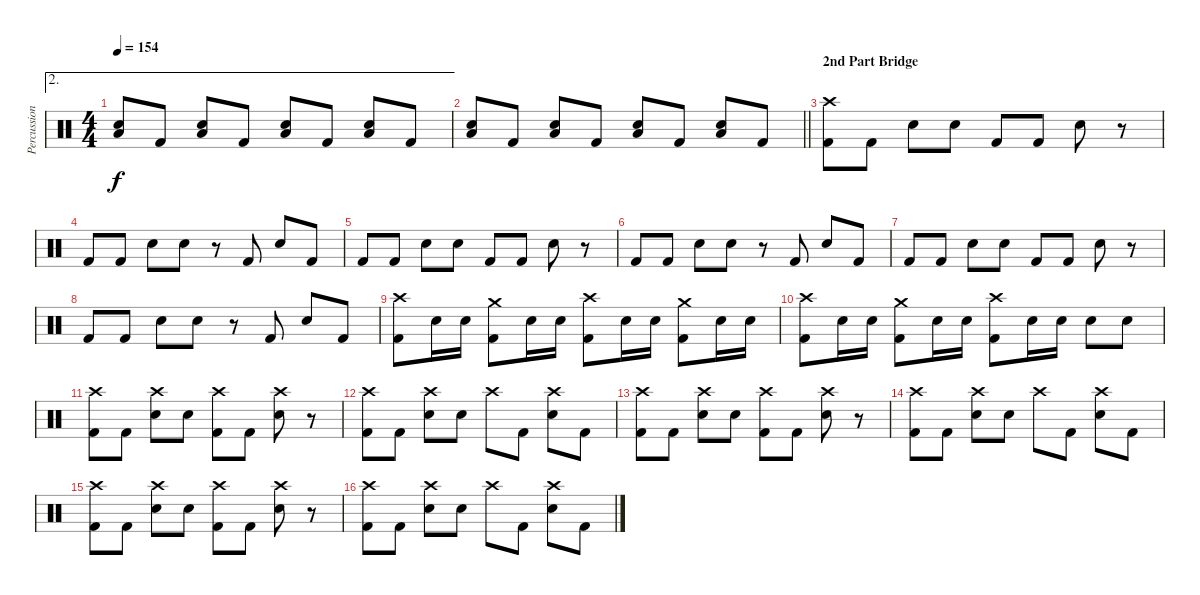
\track ("Percussion" "Percussion") {instrument percussion}
\staff {score}
\articulation defaults
\ae 2
\ts (4 4)
\tempo 154
\clef neutral
\ks c
("Snare (hit) 2" "Low Floor Tom (hit)").8{dy f} "Kick (hit) 2".8 ("Snare (hit) 2" "Low Floor Tom (hit)").8 "Kick (hit) 2".8 ("Snare (hit) 2" "Low Floor Tom (hit)").8 "Kick (hit) 2".8 ("Snare (hit) 2" "Low Floor Tom (hit)").8 "Kick (hit) 2".8 |
\barLineRight lightlight
("Snare (hit) 2" "Low Floor Tom (hit)").8 "Kick (hit) 2".8 ("Snare (hit) 2" "Low Floor Tom (hit)").8 "Kick (hit) 2".8 ("Snare (hit) 2" "Low Floor Tom (hit)").8 "Kick (hit) 2".8 ("Snare (hit) 2" "Low Floor Tom (hit)").8 "Kick (hit) 2".8 |
\section ("" "2nd Part Bridge")
("Crash high (hit)" "Kick (hit) 2").8 "Kick (hit) 2".8 "Snare (hit) 2".8 "Snare (hit) 2".8 "Kick (hit) 2".8 "Kick (hit) 2".8 "Snare (hit) 2".8 r.8 |
"Kick (hit) 2".8 "Kick (hit) 2".8 "Snare (hit) 2".8 "Snare (hit) 2".8 r.8 "Kick (hit) 2".8 "Snare (hit) 2".8 "Kick (hit) 2".8 |
"Kick (hit) 2".8 "Kick (hit) 2".8 "Snare (hit) 2".8 "Snare (hit) 2".8 "Kick (hit) 2".8 "Kick (hit) 2".8 "Snare (hit) 2".8 r.8 |
"Kick (hit) 2".8 "Kick (hit) 2".8 "Snare (hit) 2".8 "Snare (hit) 2".8 r.8 "Kick (hit) 2".8 "Snare (hit) 2".8 "Kick (hit) 2".8 |
"Kick (hit) 2".8 "Kick (hit) 2".8 "Snare (hit) 2".8 "Snare (hit) 2".8 "Kick (hit) 2".8 "Kick (hit) 2".8 "Snare (hit) 2".8 r.8 |
"Kick (hit) 2".8 "Kick (hit) 2".8 "Snare (hit) 2".8 "Snare (hit) 2".8 r.8 "Kick (hit) 2".8 "Snare (hit) 2".8 "Kick (hit) 2".8 |
("Crash high (hit)" "Kick (hit) 2").8 "Snare (hit) 2".16 "Snare (hit) 2".16 ("Crash medium (hit)" "Kick (hit) 2").8 "Snare (hit) 2".16 "Snare (hit) 2".16 ("Crash high (hit)" "Kick (hit) 2").8 "Snare (hit) 2".16 "Snare (hit) 2".16 ("Crash medium (hit)" "Kick (hit) 2").8 "Snare (hit) 2".16 "Snare (hit) 2".16 |
("Crash high (hit)" "Kick (hit) 2").8 "Snare (hit) 2".16 "Snare (hit) 2".16 ("Crash medium (hit)" "Kick (hit) 2").8 "Snare (hit) 2".16 "Snare (hit) 2".16 ("Crash high (hit)" "Kick (hit) 2").8 "Snare (hit) 2".16 "Snare (hit) 2".16 "Snare (hit) 2".8 "Snare (hit) 2".8 |
("Crash high (hit)" "Kick (hit) 2").8 "Kick (hit) 2".8 ("Crash high (hit)" "Snare (hit) 2").8 "Snare (hit) 2".8 ("Crash high (hit)" "Kick (hit) 2").8 "Kick (hit) 2".8 ("Crash high (hit)" "Snare (hit) 2").8 r.8 |
("Crash high (hit)" "Kick (hit) 2").8 "Kick (hit) 2".8 ("Crash high (hit)" "Snare (hit) 2").8 "Snare (hit) 2".8 "Crash high (hit)".8 "Kick (hit) 2".8 ("Crash high (hit)" "Snare (hit) 2").8 "Kick (hit) 2".8 |
("Crash high (hit)" "Kick (hit) 2").8 "Kick (hit) 2".8 ("Crash high (hit)" "Snare (hit) 2").8 "Snare (hit) 2".8 ("Crash high (hit)" "Kick (hit) 2").8 "Kick (hit) 2".8 ("Crash high (hit)" "Snare (hit) 2").8 r.8 |
("Crash high (hit)" "Kick (hit) 2").8 "Kick (hit) 2".8 ("Crash high (hit)" "Snare (hit) 2").8 "Snare (hit) 2".8 "Crash high (hit)".8 "Kick (hit) 2".8 ("Crash high (hit)" "Snare (hit) 2").8 "Kick (hit) 2".8 |
("Crash high (hit)" "Kick (hit) 2").8 "Kick (hit) 2".8 ("Crash high (hit)" "Snare (hit) 2").8 "Snare (hit) 2".8 ("Crash high (hit)" "Kick (hit) 2").8 "Kick (hit) 2".8 ("Crash high (hit)" "Snare (hit) 2").8 r.8 |
("Crash high (hit)" "Kick (hit) 2").8 "Kick (hit) 2".8 ("Crash high (hit)" "Snare (hit) 2").8 "Snare (hit) 2".8 "Crash high (hit)".8 "Kick (hit) 2".8 ("Crash high (hit)" "Snare (hit) 2").8 "Kick (hit) 2".8
